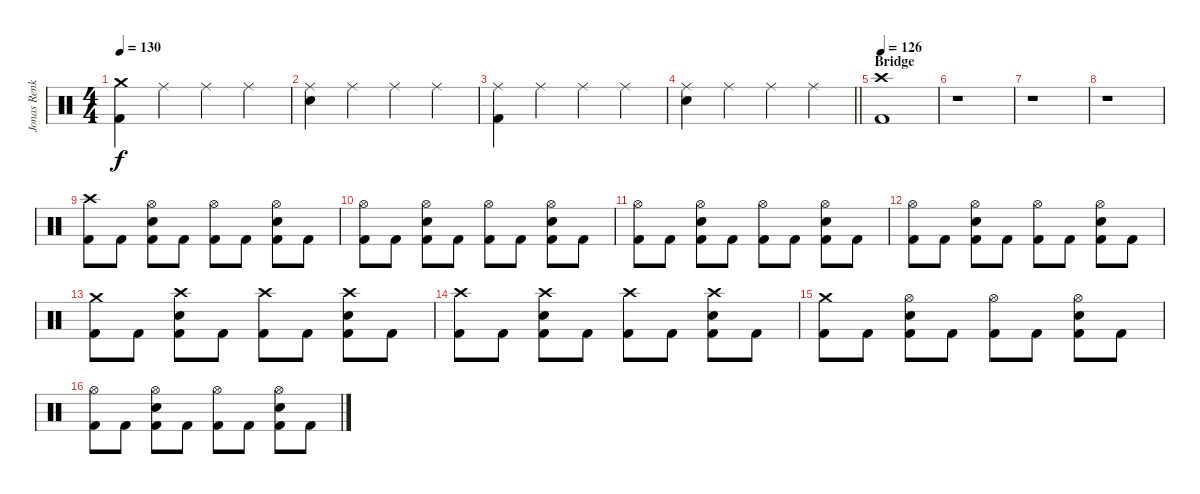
\track ("Jonas Renkse" "Jonas Renk") {instrument percussion}
\staff {score}
\articulation defaults
\ts (4 4)
\tempo 130
\clef neutral
\ks c
("Crash medium (hit)" "Kick (hit) 2").4{dy f} "Ride (middle)".4 "Ride (middle)".4 "Ride (middle)".4 |
("Ride (middle)" "Electric Snare (hit)").4 "Ride (middle)".4 "Ride (middle)".4 "Ride (middle)".4 |
("Ride (middle)" "Kick (hit) 2").4 "Ride (middle)".4 "Ride (middle)".4 "Ride (middle)".4 |
\barLineRight lightlight
("Ride (middle)" "Electric Snare (hit)").4 "Ride (middle)".4 "Ride (middle)".4 "Ride (middle)".4 |
\section ("" "Bridge ")
\tempo 126
("Crash high (hit)" "Kick (hit) 2").1 |
r.1 |
r.1 |
r.1 |
("Crash high (hit)" "Kick (hit) 2").8 "Kick (hit) 2".8 ("Hi-Hat (open)" "Electric Snare (hit)" "Kick (hit) 2").8 "Kick (hit) 2".8 ("Hi-Hat (open)" "Kick (hit) 2").8 "Kick (hit) 2".8 ("Hi-Hat (open)" "Electric Snare (hit)" "Kick (hit) 2").8 "Kick (hit) 2".8 |
("Hi-Hat (open)" "Kick (hit) 2").8 "Kick (hit) 2".8 ("Hi-Hat (open)" "Electric Snare (hit)" "Kick (hit) 2").8 "Kick (hit) 2".8 ("Hi-Hat (open)" "Kick (hit) 2").8 "Kick (hit) 2".8 ("Hi-Hat (open)" "Electric Snare (hit)" "Kick (hit) 2").8 "Kick (hit) 2".8 |
("Hi-Hat (open)" "Kick (hit) 2").8 "Kick (hit) 2".8 ("Hi-Hat (open)" "Electric Snare (hit)" "Kick (hit) 2").8 "Kick (hit) 2".8 ("Hi-Hat (open)" "Kick (hit) 2").8 "Kick (hit) 2".8 ("Hi-Hat (open)" "Electric Snare (hit)" "Kick (hit) 2").8 "Kick (hit) 2".8 |
("Hi-Hat (open)" "Kick (hit) 2").8 "Kick (hit) 2".8 ("Hi-Hat (open)" "Electric Snare (hit)" "Kick (hit) 2").8 "Kick (hit) 2".8 ("Hi-Hat (open)" "Kick (hit) 2").8 "Kick (hit) 2".8 ("Hi-Hat (open)" "Electric Snare (hit)" "Kick (hit) 2").8 "Kick (hit) 2".8 |
("Crash medium (hit)" "Kick (hit) 2").8 "Kick (hit) 2".8 ("Crash high (hit)" "Electric Snare (hit)" "Kick (hit) 2").8 "Kick (hit) 2".8 ("Crash high (hit)" "Kick (hit) 2").8 "Kick (hit) 2".8 ("Crash high (hit)" "Electric Snare (hit)" "Kick (hit) 2").8 "Kick (hit) 2".8 |
("Crash high (hit)" "Kick (hit) 2").8 "Kick (hit) 2".8 ("Crash high (hit)" "Electric Snare (hit)" "Kick (hit) 2").8 "Kick (hit) 2".8 ("Crash high (hit)" "Kick (hit) 2").8 "Kick (hit) 2".8 ("Crash high (hit)" "Electric Snare (hit)" "Kick (hit) 2").8 "Kick (hit) 2".8 |
("Crash medium (hit)" "Kick (hit) 2").8 "Kick (hit) 2".8 ("Hi-Hat (open)" "Electric Snare (hit)" "Kick (hit) 2").8 "Kick (hit) 2".8 ("Hi-Hat (open)" "Kick (hit) 2").8 "Kick (hit) 2".8 ("Hi-Hat (open)" "Electric Snare (hit)" "Kick (hit) 2").8 "Kick (hit) 2".8 |
("Hi-Hat (open)" "Kick (hit) 2").8 "Kick (hit) 2".8 ("Hi-Hat (open)" "Electric Snare (hit)" "Kick (hit) 2").8 "Kick (hit) 2".8 ("Hi-Hat (open)" "Kick (hit) 2").8 "Kick (hit) 2".8 ("Hi-Hat (open)" "Electric Snare (hit)" "Kick (hit) 2").8 "Kick (hit) 2".8
